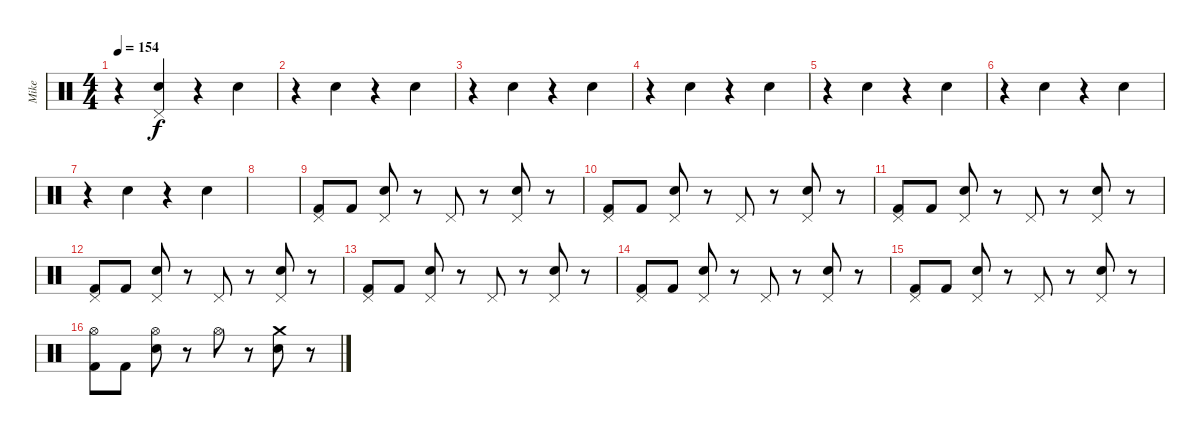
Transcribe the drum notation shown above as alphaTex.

\track ("Mike " "Mike ") {instrument percussion}
\staff {score}
\articulation defaults
\ts (4 4)
\tempo 154
\clef neutral
\ks c
r.4{dy f} ("Pedal Hi-Hat (hit)" "Electric Snare (hit)").4 r.4 "Electric Snare (hit)".4 |
r.4 "Electric Snare (hit)".4 r.4 "Electric Snare (hit)".4 |
r.4 "Electric Snare (hit)".4 r.4 "Electric Snare (hit)".4 |
r.4 "Electric Snare (hit)".4 r.4 "Electric Snare (hit)".4 |
r.4 "Electric Snare (hit)".4 r.4 "Electric Snare (hit)".4 |
r.4 "Electric Snare (hit)".4 r.4 "Electric Snare (hit)".4 |
r.4 "Electric Snare (hit)".4 r.4 "Electric Snare (hit)".4 |
|
("Pedal Hi-Hat (hit)" "Kick (hit) 2").8 "Kick (hit) 2".8 ("Pedal Hi-Hat (hit)" "Electric Snare (hit)").8 r.8 "Pedal Hi-Hat (hit)".8 r.8 ("Pedal Hi-Hat (hit)" "Electric Snare (hit)").8 r.8 |
("Pedal Hi-Hat (hit)" "Kick (hit) 2").8 "Kick (hit) 2".8 ("Pedal Hi-Hat (hit)" "Electric Snare (hit)").8 r.8 "Pedal Hi-Hat (hit)".8 r.8 ("Pedal Hi-Hat (hit)" "Electric Snare (hit)").8 r.8 |
("Pedal Hi-Hat (hit)" "Kick (hit) 2").8 "Kick (hit) 2".8 ("Pedal Hi-Hat (hit)" "Electric Snare (hit)").8 r.8 "Pedal Hi-Hat (hit)".8 r.8 ("Pedal Hi-Hat (hit)" "Electric Snare (hit)").8 r.8 |
("Pedal Hi-Hat (hit)" "Kick (hit) 2").8 "Kick (hit) 2".8 ("Pedal Hi-Hat (hit)" "Electric Snare (hit)").8 r.8 "Pedal Hi-Hat (hit)".8 r.8 ("Pedal Hi-Hat (hit)" "Electric Snare (hit)").8 r.8 |
("Pedal Hi-Hat (hit)" "Kick (hit) 2").8 "Kick (hit) 2".8 ("Pedal Hi-Hat (hit)" "Electric Snare (hit)").8 r.8 "Pedal Hi-Hat (hit)".8 r.8 ("Pedal Hi-Hat (hit)" "Electric Snare (hit)").8 r.8 |
("Pedal Hi-Hat (hit)" "Kick (hit) 2").8 "Kick (hit) 2".8 ("Pedal Hi-Hat (hit)" "Electric Snare (hit)").8 r.8 "Pedal Hi-Hat (hit)".8 r.8 ("Pedal Hi-Hat (hit)" "Electric Snare (hit)").8 r.8 |
("Pedal Hi-Hat (hit)" "Kick (hit) 2").8 "Kick (hit) 2".8 ("Pedal Hi-Hat (hit)" "Electric Snare (hit)").8 r.8 "Pedal Hi-Hat (hit)".8 r.8 ("Pedal Hi-Hat (hit)" "Electric Snare (hit)").8 r.8 |
("Hi-Hat (open)" "Kick (hit) 2").8 "Kick (hit) 2".8 ("Hi-Hat (open)" "Electric Snare (hit)").8 r.8 "Hi-Hat (open)".8 r.8 ("Crash medium (hit)" "Electric Snare (hit)").8 r.8
